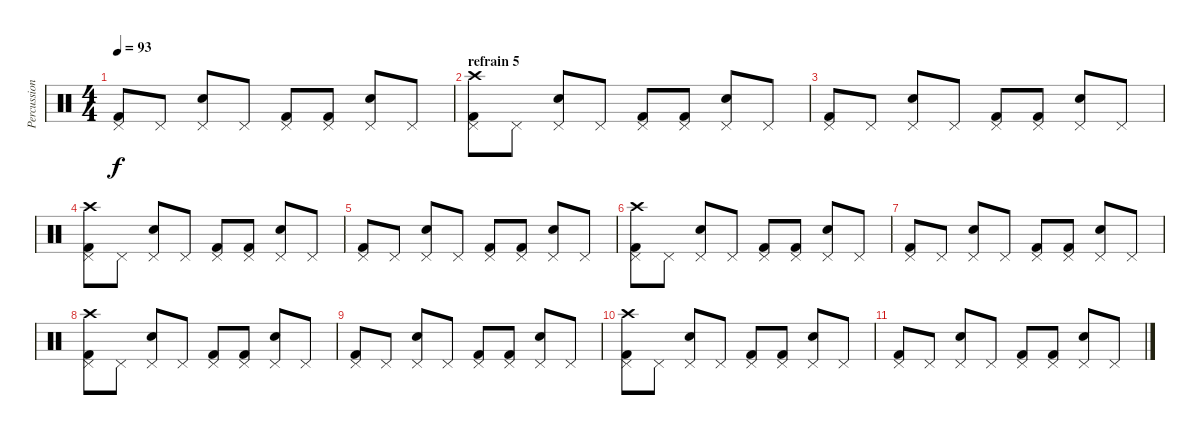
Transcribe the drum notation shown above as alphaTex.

\track ("Percussions" "Percussion") {instrument percussion}
\staff {score}
\articulation defaults
\ts (4 4)
\tempo 93
\clef neutral
\ks c
("Pedal Hi-Hat (hit)" "Kick (hit) 2").8{dy f} "Pedal Hi-Hat (hit)".8 ("Pedal Hi-Hat (hit)" "Electric Snare (hit)").8 "Pedal Hi-Hat (hit)".8 ("Pedal Hi-Hat (hit)" "Kick (hit) 2").8 ("Pedal Hi-Hat (hit)" "Kick (hit) 2").8 ("Pedal Hi-Hat (hit)" "Electric Snare (hit)").8 "Pedal Hi-Hat (hit)".8 |
\section ("" "refrain 5")
("Pedal Hi-Hat (hit)" "Crash high (hit)" "Kick (hit) 2").8 "Pedal Hi-Hat (hit)".8 ("Pedal Hi-Hat (hit)" "Electric Snare (hit)").8 "Pedal Hi-Hat (hit)".8 ("Pedal Hi-Hat (hit)" "Kick (hit) 2").8 ("Pedal Hi-Hat (hit)" "Kick (hit) 2").8 ("Pedal Hi-Hat (hit)" "Electric Snare (hit)").8 "Pedal Hi-Hat (hit)".8 |
("Pedal Hi-Hat (hit)" "Kick (hit) 2").8 "Pedal Hi-Hat (hit)".8 ("Pedal Hi-Hat (hit)" "Electric Snare (hit)").8 "Pedal Hi-Hat (hit)".8 ("Pedal Hi-Hat (hit)" "Kick (hit) 2").8 ("Pedal Hi-Hat (hit)" "Kick (hit) 2").8 ("Pedal Hi-Hat (hit)" "Electric Snare (hit)").8 "Pedal Hi-Hat (hit)".8 |
("Pedal Hi-Hat (hit)" "Crash high (hit)" "Kick (hit) 2").8 "Pedal Hi-Hat (hit)".8 ("Pedal Hi-Hat (hit)" "Electric Snare (hit)").8 "Pedal Hi-Hat (hit)".8 ("Pedal Hi-Hat (hit)" "Kick (hit) 2").8 ("Pedal Hi-Hat (hit)" "Kick (hit) 2").8 ("Pedal Hi-Hat (hit)" "Electric Snare (hit)").8 "Pedal Hi-Hat (hit)".8 |
("Pedal Hi-Hat (hit)" "Kick (hit) 2").8 "Pedal Hi-Hat (hit)".8 ("Pedal Hi-Hat (hit)" "Electric Snare (hit)").8 "Pedal Hi-Hat (hit)".8 ("Pedal Hi-Hat (hit)" "Kick (hit) 2").8 ("Pedal Hi-Hat (hit)" "Kick (hit) 2").8 ("Pedal Hi-Hat (hit)" "Electric Snare (hit)").8 "Pedal Hi-Hat (hit)".8 |
("Pedal Hi-Hat (hit)" "Crash high (hit)" "Kick (hit) 2").8 "Pedal Hi-Hat (hit)".8 ("Pedal Hi-Hat (hit)" "Electric Snare (hit)").8 "Pedal Hi-Hat (hit)".8 ("Pedal Hi-Hat (hit)" "Kick (hit) 2").8 ("Pedal Hi-Hat (hit)" "Kick (hit) 2").8 ("Pedal Hi-Hat (hit)" "Electric Snare (hit)").8 "Pedal Hi-Hat (hit)".8 |
("Pedal Hi-Hat (hit)" "Kick (hit) 2").8 "Pedal Hi-Hat (hit)".8 ("Pedal Hi-Hat (hit)" "Electric Snare (hit)").8 "Pedal Hi-Hat (hit)".8 ("Pedal Hi-Hat (hit)" "Kick (hit) 2").8 ("Pedal Hi-Hat (hit)" "Kick (hit) 2").8 ("Pedal Hi-Hat (hit)" "Electric Snare (hit)").8 "Pedal Hi-Hat (hit)".8 |
("Pedal Hi-Hat (hit)" "Crash high (hit)" "Kick (hit) 2").8 "Pedal Hi-Hat (hit)".8 ("Pedal Hi-Hat (hit)" "Electric Snare (hit)").8 "Pedal Hi-Hat (hit)".8 ("Pedal Hi-Hat (hit)" "Kick (hit) 2").8 ("Pedal Hi-Hat (hit)" "Kick (hit) 2").8 ("Pedal Hi-Hat (hit)" "Electric Snare (hit)").8 "Pedal Hi-Hat (hit)".8 |
("Pedal Hi-Hat (hit)" "Kick (hit) 2").8 "Pedal Hi-Hat (hit)".8 ("Pedal Hi-Hat (hit)" "Electric Snare (hit)").8 "Pedal Hi-Hat (hit)".8 ("Pedal Hi-Hat (hit)" "Kick (hit) 2").8 ("Pedal Hi-Hat (hit)" "Kick (hit) 2").8 ("Pedal Hi-Hat (hit)" "Electric Snare (hit)").8 "Pedal Hi-Hat (hit)".8 |
("Pedal Hi-Hat (hit)" "Crash high (hit)" "Kick (hit) 2").8 "Pedal Hi-Hat (hit)".8 ("Pedal Hi-Hat (hit)" "Electric Snare (hit)").8 "Pedal Hi-Hat (hit)".8 ("Pedal Hi-Hat (hit)" "Kick (hit) 2").8 ("Pedal Hi-Hat (hit)" "Kick (hit) 2").8 ("Pedal Hi-Hat (hit)" "Electric Snare (hit)").8 "Pedal Hi-Hat (hit)".8 |
("Pedal Hi-Hat (hit)" "Kick (hit) 2").8 "Pedal Hi-Hat (hit)".8 ("Pedal Hi-Hat (hit)" "Electric Snare (hit)").8 "Pedal Hi-Hat (hit)".8 ("Pedal Hi-Hat (hit)" "Kick (hit) 2").8 ("Pedal Hi-Hat (hit)" "Kick (hit) 2").8 ("Pedal Hi-Hat (hit)" "Electric Snare (hit)").8 "Pedal Hi-Hat (hit)".8
